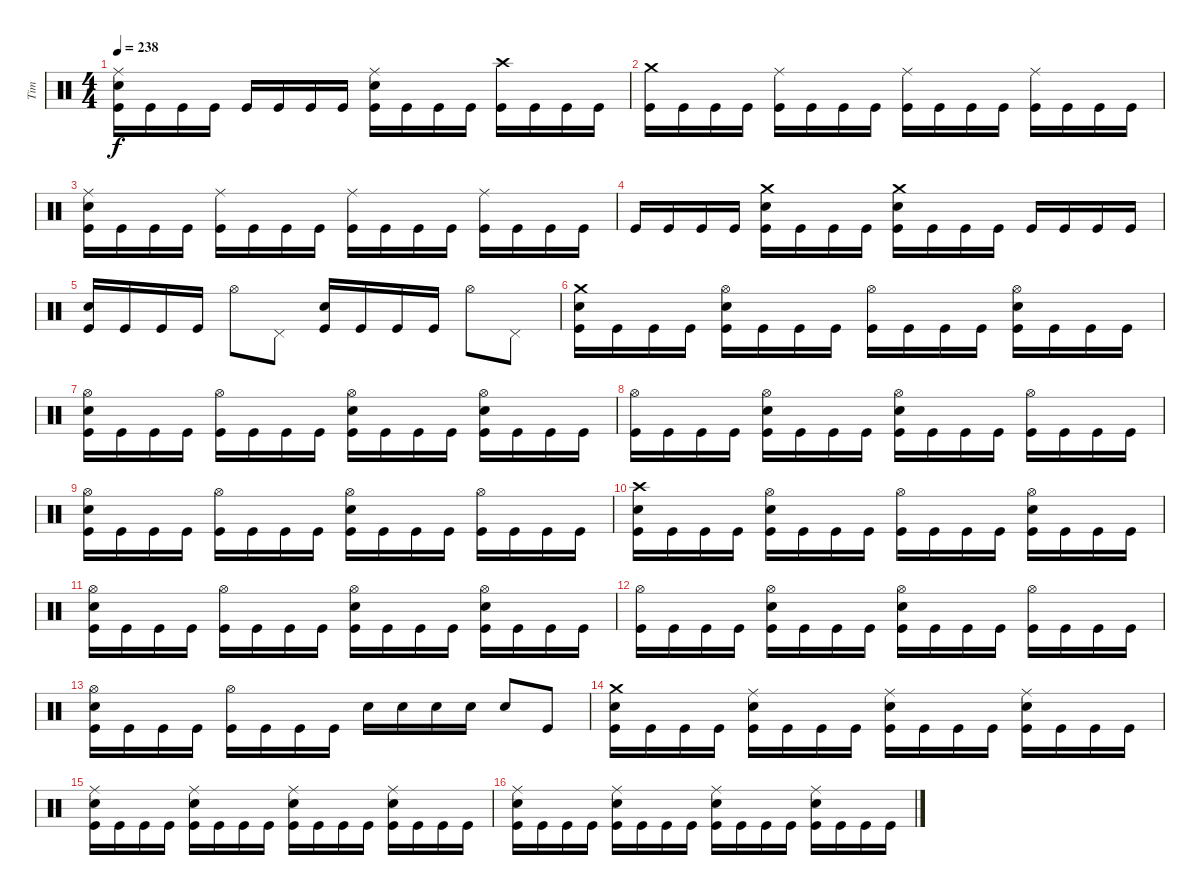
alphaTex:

\track ("Tim" "Tim") {instrument percussion}
\staff {score}
\articulation defaults
\ts (4 4)
\tempo 238
\clef neutral
\ks c
("Ride (middle)" "Electric Snare (hit)" "Kick (hit)").16{dy f} "Kick (hit)".16 "Kick (hit)".16 "Kick (hit)".16 "Kick (hit)".16 "Kick (hit)".16 "Kick (hit)".16 "Kick (hit)".16 ("Ride (middle)" "Electric Snare (hit)" "Kick (hit)").16 "Kick (hit)".16 "Kick (hit)".16 "Kick (hit)".16 ("Crash high (hit)" "Kick (hit)").16 "Kick (hit)".16 "Kick (hit)".16 "Kick (hit)".16 |
("Crash medium (hit)" "Kick (hit)").16 "Kick (hit)".16 "Kick (hit)".16 "Kick (hit)".16 ("Ride (middle)" "Kick (hit)").16 "Kick (hit)".16 "Kick (hit)".16 "Kick (hit)".16 ("Ride (middle)" "Kick (hit)").16 "Kick (hit)".16 "Kick (hit)".16 "Kick (hit)".16 ("Ride (middle)" "Kick (hit)").16 "Kick (hit)".16 "Kick (hit)".16 "Kick (hit)".16 |
("Ride (middle)" "Electric Snare (hit)" "Kick (hit)").16 "Kick (hit)".16 "Kick (hit)".16 "Kick (hit)".16 ("Ride (middle)" "Kick (hit)").16 "Kick (hit)".16 "Kick (hit)".16 "Kick (hit)".16 ("Ride (middle)" "Kick (hit)").16 "Kick (hit)".16 "Kick (hit)".16 "Kick (hit)".16 ("Ride (middle)" "Kick (hit)").16 "Kick (hit)".16 "Kick (hit)".16 "Kick (hit)".16 |
"Kick (hit)".16 "Kick (hit)".16 "Kick (hit)".16 "Kick (hit)".16 ("Crash medium (hit)" "Electric Snare (hit)" "Kick (hit)").16 "Kick (hit)".16 "Kick (hit)".16 "Kick (hit)".16 ("Crash medium (hit)" "Electric Snare (hit)" "Kick (hit)").16 "Kick (hit)".16 "Kick (hit)".16 "Kick (hit)".16 "Kick (hit)".16 "Kick (hit)".16 "Kick (hit)".16 "Kick (hit)".16 |
("Electric Snare (hit)" "Kick (hit)").16 "Kick (hit)".16 "Kick (hit)".16 "Kick (hit)".16 "Hi-Hat (open)".8 "Pedal Hi-Hat (hit)".8 ("Electric Snare (hit)" "Kick (hit)").16 "Kick (hit)".16 "Kick (hit)".16 "Kick (hit)".16 "Hi-Hat (open)".8 "Pedal Hi-Hat (hit)".8 |
("Crash medium (hit)" "Electric Snare (hit)" "Kick (hit)").16 "Kick (hit)".16 "Kick (hit)".16 "Kick (hit)".16 ("Hi-Hat (open)" "Electric Snare (hit)" "Kick (hit)").16 "Kick (hit)".16 "Kick (hit)".16 "Kick (hit)".16 ("Hi-Hat (open)" "Kick (hit)").16 "Kick (hit)".16 "Kick (hit)".16 "Kick (hit)".16 ("Hi-Hat (open)" "Electric Snare (hit)" "Kick (hit)").16 "Kick (hit)".16 "Kick (hit)".16 "Kick (hit)".16 |
("Hi-Hat (open)" "Electric Snare (hit)" "Kick (hit)").16 "Kick (hit)".16 "Kick (hit)".16 "Kick (hit)".16 ("Hi-Hat (open)" "Kick (hit)").16 "Kick (hit)".16 "Kick (hit)".16 "Kick (hit)".16 ("Hi-Hat (open)" "Electric Snare (hit)" "Kick (hit)").16 "Kick (hit)".16 "Kick (hit)".16 "Kick (hit)".16 ("Hi-Hat (open)" "Electric Snare (hit)" "Kick (hit)").16 "Kick (hit)".16 "Kick (hit)".16 "Kick (hit)".16 |
("Hi-Hat (open)" "Kick (hit)").16 "Kick (hit)".16 "Kick (hit)".16 "Kick (hit)".16 ("Hi-Hat (open)" "Electric Snare (hit)" "Kick (hit)").16 "Kick (hit)".16 "Kick (hit)".16 "Kick (hit)".16 ("Hi-Hat (open)" "Electric Snare (hit)" "Kick (hit)").16 "Kick (hit)".16 "Kick (hit)".16 "Kick (hit)".16 ("Hi-Hat (open)" "Kick (hit)").16 "Kick (hit)".16 "Kick (hit)".16 "Kick (hit)".16 |
("Hi-Hat (open)" "Electric Snare (hit)" "Kick (hit)").16 "Kick (hit)".16 "Kick (hit)".16 "Kick (hit)".16 ("Hi-Hat (open)" "Kick (hit)").16 "Kick (hit)".16 "Kick (hit)".16 "Kick (hit)".16 ("Hi-Hat (open)" "Electric Snare (hit)" "Kick (hit)").16 "Kick (hit)".16 "Kick (hit)".16 "Kick (hit)".16 ("Hi-Hat (open)" "Kick (hit)").16 "Kick (hit)".16 "Kick (hit)".16 "Kick (hit)".16 |
("Crash high (hit)" "Electric Snare (hit)" "Kick (hit)").16 "Kick (hit)".16 "Kick (hit)".16 "Kick (hit)".16 ("Hi-Hat (open)" "Electric Snare (hit)" "Kick (hit)").16 "Kick (hit)".16 "Kick (hit)".16 "Kick (hit)".16 ("Hi-Hat (open)" "Kick (hit)").16 "Kick (hit)".16 "Kick (hit)".16 "Kick (hit)".16 ("Hi-Hat (open)" "Electric Snare (hit)" "Kick (hit)").16 "Kick (hit)".16 "Kick (hit)".16 "Kick (hit)".16 |
("Hi-Hat (open)" "Electric Snare (hit)" "Kick (hit)").16 "Kick (hit)".16 "Kick (hit)".16 "Kick (hit)".16 ("Hi-Hat (open)" "Kick (hit)").16 "Kick (hit)".16 "Kick (hit)".16 "Kick (hit)".16 ("Hi-Hat (open)" "Electric Snare (hit)" "Kick (hit)").16 "Kick (hit)".16 "Kick (hit)".16 "Kick (hit)".16 ("Hi-Hat (open)" "Electric Snare (hit)" "Kick (hit)").16 "Kick (hit)".16 "Kick (hit)".16 "Kick (hit)".16 |
("Hi-Hat (open)" "Kick (hit)").16 "Kick (hit)".16 "Kick (hit)".16 "Kick (hit)".16 ("Hi-Hat (open)" "Electric Snare (hit)" "Kick (hit)").16 "Kick (hit)".16 "Kick (hit)".16 "Kick (hit)".16 ("Hi-Hat (open)" "Electric Snare (hit)" "Kick (hit)").16 "Kick (hit)".16 "Kick (hit)".16 "Kick (hit)".16 ("Hi-Hat (open)" "Kick (hit)").16 "Kick (hit)".16 "Kick (hit)".16 "Kick (hit)".16 |
("Hi-Hat (open)" "Electric Snare (hit)" "Kick (hit)").16 "Kick (hit)".16 "Kick (hit)".16 "Kick (hit)".16 ("Hi-Hat (open)" "Kick (hit)").16 "Kick (hit)".16 "Kick (hit)".16 "Kick (hit)".16 "Electric Snare (hit)".16 "Electric Snare (hit)".16 "Electric Snare (hit)".16 "Electric Snare (hit)".16 "Electric Snare (hit)".8 "Kick (hit)".8 |
("Crash medium (hit)" "Electric Snare (hit)" "Kick (hit)").16 "Kick (hit)".16 "Kick (hit)".16 "Kick (hit)".16 ("Ride (middle)" "Electric Snare (hit)" "Kick (hit)").16 "Kick (hit)".16 "Kick (hit)".16 "Kick (hit)".16 ("Ride (middle)" "Electric Snare (hit)" "Kick (hit)").16 "Kick (hit)".16 "Kick (hit)".16 "Kick (hit)".16 ("Ride (middle)" "Electric Snare (hit)" "Kick (hit)").16 "Kick (hit)".16 "Kick (hit)".16 "Kick (hit)".16 |
("Ride (middle)" "Electric Snare (hit)" "Kick (hit)").16 "Kick (hit)".16 "Kick (hit)".16 "Kick (hit)".16 ("Ride (middle)" "Electric Snare (hit)" "Kick (hit)").16 "Kick (hit)".16 "Kick (hit)".16 "Kick (hit)".16 ("Ride (middle)" "Electric Snare (hit)" "Kick (hit)").16 "Kick (hit)".16 "Kick (hit)".16 "Kick (hit)".16 ("Ride (middle)" "Electric Snare (hit)" "Kick (hit)").16 "Kick (hit)".16 "Kick (hit)".16 "Kick (hit)".16 |
("Ride (middle)" "Electric Snare (hit)" "Kick (hit)").16 "Kick (hit)".16 "Kick (hit)".16 "Kick (hit)".16 ("Ride (middle)" "Electric Snare (hit)" "Kick (hit)").16 "Kick (hit)".16 "Kick (hit)".16 "Kick (hit)".16 ("Ride (middle)" "Electric Snare (hit)" "Kick (hit)").16 "Kick (hit)".16 "Kick (hit)".16 "Kick (hit)".16 ("Ride (middle)" "Electric Snare (hit)" "Kick (hit)").16 "Kick (hit)".16 "Kick (hit)".16 "Kick (hit)".16
